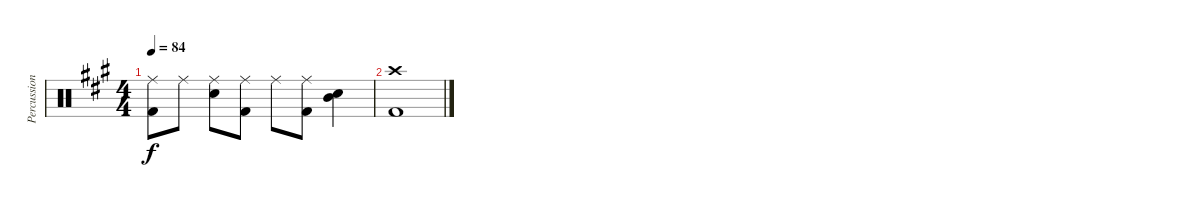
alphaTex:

\track ("Percussion - Chad S" "Percussion") {instrument percussion}
\staff {score}
\articulation defaults
\ts (4 4)
\tempo 84
\clef neutral
\ks a
("Ride (middle)" "Kick (hit) 2").8{dy f} "Ride (middle)".8 ("Ride (middle)" "Snare (hit) 2").8 ("Ride (middle)" "Kick (hit) 2").8 "Ride (middle)".8 ("Ride (middle)" "Kick (hit) 2").8 ("Snare (hit) 2" "Mid Tom (hit)").4 |
("Crash high (hit)" "Kick (hit) 2").1
